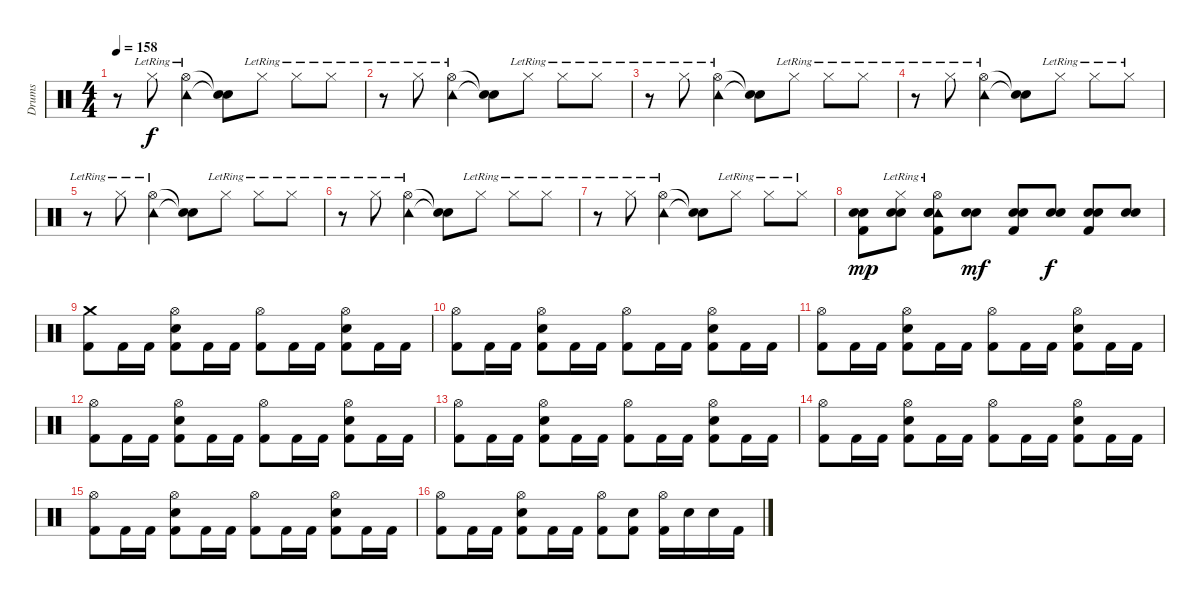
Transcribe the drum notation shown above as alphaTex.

\track ("Drums" "Drums") {instrument percussion}
\staff {score}
\articulation defaults
\ts (4 4)
\tempo 158
\clef neutral
\ks c
r.8{dy f} "Hi-Hat (closed)"{lr}.8 ("Hi-Hat (open)"{lr} "Tambourine (hit)"{lr}).4 ("Snare (hit)"{t} "Snare (hit)"{t}).8 "Hi-Hat (closed)"{lr}.8 "Hi-Hat (closed)"{lr}.8 "Hi-Hat (closed)"{lr}.8 |
r.8 "Hi-Hat (closed)"{lr}.8 ("Hi-Hat (open)"{lr} "Tambourine (hit)"{lr}).4 ("Snare (hit)"{t} "Snare (hit)"{t}).8 "Hi-Hat (closed)"{lr}.8 "Hi-Hat (closed)"{lr}.8 "Hi-Hat (closed)"{lr}.8 |
r.8 "Hi-Hat (closed)"{lr}.8 ("Hi-Hat (open)"{lr} "Tambourine (hit)"{lr}).4 ("Snare (hit)"{t} "Snare (hit)"{t}).8 "Hi-Hat (closed)"{lr}.8 "Hi-Hat (closed)"{lr}.8 "Hi-Hat (closed)"{lr}.8 |
r.8 "Hi-Hat (closed)"{lr}.8 ("Hi-Hat (open)"{lr} "Tambourine (hit)"{lr}).4 ("Snare (hit)"{t} "Snare (hit)"{t}).8 "Hi-Hat (closed)"{lr}.8 "Hi-Hat (closed)"{lr}.8 "Hi-Hat (closed)"{lr}.8 |
r.8 "Hi-Hat (closed)"{lr}.8 ("Hi-Hat (open)"{lr} "Tambourine (hit)"{lr}).4 ("Snare (hit)"{t} "Snare (hit)"{t}).8 "Hi-Hat (closed)"{lr}.8 "Hi-Hat (closed)"{lr}.8 "Hi-Hat (closed)"{lr}.8 |
r.8 "Hi-Hat (closed)"{lr}.8 ("Hi-Hat (open)"{lr} "Tambourine (hit)"{lr}).4 ("Snare (hit)"{t} "Snare (hit)"{t}).8 "Hi-Hat (closed)"{lr}.8 "Hi-Hat (closed)"{lr}.8 "Hi-Hat (closed)"{lr}.8 |
r.8 "Hi-Hat (closed)"{lr}.8 ("Hi-Hat (open)"{lr} "Tambourine (hit)"{lr}).4 ("Snare (hit)"{t} "Snare (hit)"{t}).8 "Hi-Hat (closed)"{lr}.8 "Hi-Hat (closed)"{lr}.8 "Hi-Hat (closed)"{lr}.8 |
\section ("" "")
("Electric Snare (hit)" "Electric Snare (hit)" "Kick (hit) 2").8{dy mp} ("Hi-Hat (closed)"{lr} "Electric Snare (hit)" "Electric Snare (hit)").8 ("Hi-Hat (open)"{lr} "Tambourine (hit)"{lr} "Electric Snare (hit)" "Electric Snare (hit)" "Kick (hit) 2").8 ("Electric Snare (hit)" "Electric Snare (hit)").8{dy mf} ("Electric Snare (hit)" "Electric Snare (hit)" "Kick (hit) 2").8 ("Electric Snare (hit)" "Electric Snare (hit)").8{dy f} ("Electric Snare (hit)" "Electric Snare (hit)" "Kick (hit) 2").8 ("Electric Snare (hit)" "Electric Snare (hit)").8 |
("Crash medium (hit)" "Kick (hit) 2").8 "Kick (hit) 2".16 "Kick (hit) 2".16 ("Hi-Hat (open)" "Electric Snare (hit)" "Kick (hit) 2").8 "Kick (hit) 2".16 "Kick (hit) 2".16 ("Hi-Hat (open)" "Kick (hit) 2").8 "Kick (hit) 2".16 "Kick (hit) 2".16 ("Hi-Hat (open)" "Electric Snare (hit)" "Kick (hit) 2").8 "Kick (hit) 2".16 "Kick (hit) 2".16 |
("Hi-Hat (open)" "Kick (hit) 2").8 "Kick (hit) 2".16 "Kick (hit) 2".16 ("Hi-Hat (open)" "Electric Snare (hit)" "Kick (hit) 2").8 "Kick (hit) 2".16 "Kick (hit) 2".16 ("Hi-Hat (open)" "Kick (hit) 2").8 "Kick (hit) 2".16 "Kick (hit) 2".16 ("Hi-Hat (open)" "Electric Snare (hit)" "Kick (hit) 2").8 "Kick (hit) 2".16 "Kick (hit) 2".16 |
("Hi-Hat (open)" "Kick (hit) 2").8 "Kick (hit) 2".16 "Kick (hit) 2".16 ("Hi-Hat (open)" "Electric Snare (hit)" "Kick (hit) 2").8 "Kick (hit) 2".16 "Kick (hit) 2".16 ("Hi-Hat (open)" "Kick (hit) 2").8 "Kick (hit) 2".16 "Kick (hit) 2".16 ("Hi-Hat (open)" "Electric Snare (hit)" "Kick (hit) 2").8 "Kick (hit) 2".16 "Kick (hit) 2".16 |
("Hi-Hat (open)" "Kick (hit) 2").8 "Kick (hit) 2".16 "Kick (hit) 2".16 ("Hi-Hat (open)" "Electric Snare (hit)" "Kick (hit) 2").8 "Kick (hit) 2".16 "Kick (hit) 2".16 ("Hi-Hat (open)" "Kick (hit) 2").8 "Kick (hit) 2".16 "Kick (hit) 2".16 ("Hi-Hat (open)" "Electric Snare (hit)" "Kick (hit) 2").8 "Kick (hit) 2".16 "Kick (hit) 2".16 |
("Hi-Hat (open)" "Kick (hit) 2").8 "Kick (hit) 2".16 "Kick (hit) 2".16 ("Hi-Hat (open)" "Electric Snare (hit)" "Kick (hit) 2").8 "Kick (hit) 2".16 "Kick (hit) 2".16 ("Hi-Hat (open)" "Kick (hit) 2").8 "Kick (hit) 2".16 "Kick (hit) 2".16 ("Hi-Hat (open)" "Electric Snare (hit)" "Kick (hit) 2").8 "Kick (hit) 2".16 "Kick (hit) 2".16 |
("Hi-Hat (open)" "Kick (hit) 2").8 "Kick (hit) 2".16 "Kick (hit) 2".16 ("Hi-Hat (open)" "Electric Snare (hit)" "Kick (hit) 2").8 "Kick (hit) 2".16 "Kick (hit) 2".16 ("Hi-Hat (open)" "Kick (hit) 2").8 "Kick (hit) 2".16 "Kick (hit) 2".16 ("Hi-Hat (open)" "Electric Snare (hit)" "Kick (hit) 2").8 "Kick (hit) 2".16 "Kick (hit) 2".16 |
("Hi-Hat (open)" "Kick (hit) 2").8 "Kick (hit) 2".16 "Kick (hit) 2".16 ("Hi-Hat (open)" "Electric Snare (hit)" "Kick (hit) 2").8 "Kick (hit) 2".16 "Kick (hit) 2".16 ("Hi-Hat (open)" "Kick (hit) 2").8 "Kick (hit) 2".16 "Kick (hit) 2".16 ("Hi-Hat (open)" "Electric Snare (hit)" "Kick (hit) 2").8 "Kick (hit) 2".16 "Kick (hit) 2".16 |
("Hi-Hat (open)" "Kick (hit) 2").8 "Kick (hit) 2".16 "Kick (hit) 2".16 ("Hi-Hat (open)" "Electric Snare (hit)" "Kick (hit) 2").8 "Kick (hit) 2".16 "Kick (hit) 2".16 ("Hi-Hat (open)" "Kick (hit) 2").8 ("Electric Snare (hit)" "Kick (hit) 2").8 ("Hi-Hat (open)" "Kick (hit) 2").16 "Electric Snare (hit)".16 "Electric Snare (hit)".16 "Kick (hit) 2".16
